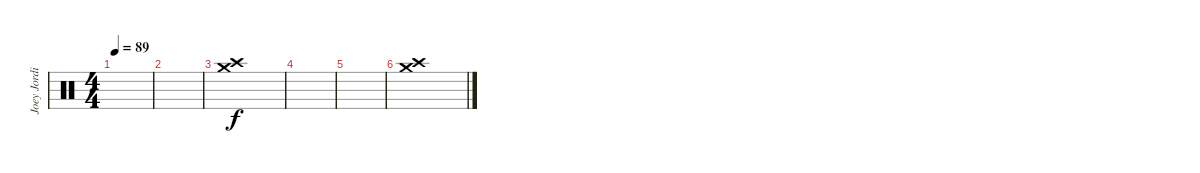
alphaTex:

\track ("Joey Jordison" "Joey Jordi") {instrument percussion}
\staff {score}
\articulation defaults
\ts (4 4)
\tempo 89
\clef neutral
\ks c
|
|
("Crash high (hit)" "Crash medium (hit)").1 |
|
|
("Crash high (hit)" "Crash medium (hit)").1
